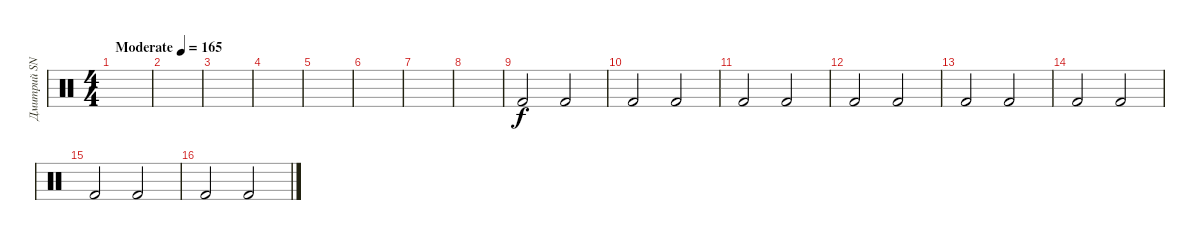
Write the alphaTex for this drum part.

\track ("Дмитрий SNAKE Хакимов" "Дмитрий SN") {instrument percussion}
\staff {score}
\articulation defaults
\ts (4 4)
\tempo (165 "Moderate")
\clef neutral
\ks c
|
|
|
|
|
|
|
|
"Kick (hit) 2".2 "Kick (hit) 2".2 |
"Kick (hit) 2".2 "Kick (hit) 2".2 |
"Kick (hit) 2".2 "Kick (hit) 2".2 |
"Kick (hit) 2".2 "Kick (hit) 2".2 |
"Kick (hit) 2".2 "Kick (hit) 2".2 |
"Kick (hit) 2".2 "Kick (hit) 2".2 |
"Kick (hit) 2".2 "Kick (hit) 2".2 |
"Kick (hit) 2".2 "Kick (hit) 2".2
